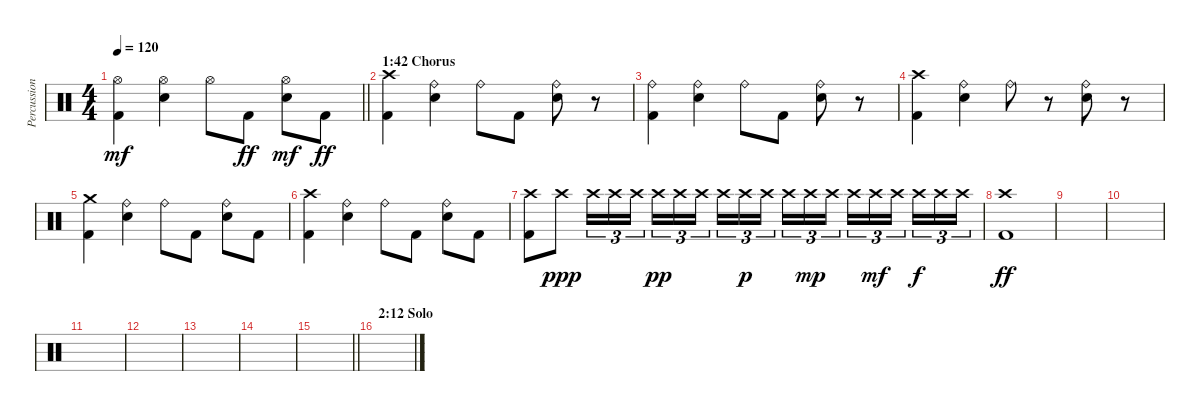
\track ("Percussion" "Percussion") {instrument percussion}
\staff {score}
\articulation defaults
\ts (4 4)
\tempo 120
\clef neutral
\barLineRight lightlight
\ks c
("Kick (hit) 2" "Hi-Hat (open)").4{dy mf} ("Electric Snare (hit)" "Hi-Hat (open)").4 "Hi-Hat (open)".8 "Kick (hit) 2".8{dy ff} ("Electric Snare (hit)" "Hi-Hat (open)").8{dy mf} "Kick (hit) 2".8{dy ff} |
\section ("" "1:42 Chorus")
("Kick (hit) 2" "Crash high (hit)").4 ("Electric Snare (hit)" "Ride (bell)").4 "Ride (bell)".8 "Kick (hit) 2".8 ("Electric Snare (hit)" "Ride (bell)").8 r.8 |
("Kick (hit) 2" "Ride (bell)").4 ("Electric Snare (hit)" "Ride (bell)").4 "Ride (bell)".8 "Kick (hit) 2".8 ("Electric Snare (hit)" "Ride (bell)").8 r.8 |
("Kick (hit) 2" "Crash high (hit)").4 ("Electric Snare (hit)" "Ride (bell)").4 "Ride (bell)".8 r.8 ("Electric Snare (hit)" "Ride (bell)").8 r.8 |
("Kick (hit) 2" "Crash medium (hit)").4 ("Electric Snare (hit)" "Ride (bell)").4 "Ride (bell)".8 "Kick (hit) 2".8 ("Electric Snare (hit)" "Ride (bell)").8 "Kick (hit) 2".8 |
("Kick (hit) 2" "Crash high (hit)").4 ("Electric Snare (hit)" "Ride (bell)").4 "Ride (bell)".8 "Kick (hit) 2".8 ("Electric Snare (hit)" "Ride (bell)").8 "Kick (hit) 2".8 |
("Kick (hit) 2" "Crash high (hit)").8 "Crash high (hit)".8{dy ppp} "Crash high (hit)".16{tu (3 2)} "Crash high (hit)".16{tu (3 2)} "Crash high (hit)".16{tu (3 2) beam splitsecondary} "Crash high (hit)".16{tu (3 2) dy pp} "Crash high (hit)".16{tu (3 2)} "Crash high (hit)".16{tu (3 2)} "Crash high (hit)".16{tu (3 2)} "Crash high (hit)".16{tu (3 2) dy p} "Crash high (hit)".16{tu (3 2) beam splitsecondary} "Crash high (hit)".16{tu (3 2)} "Crash high (hit)".16{tu (3 2) dy mp} "Crash high (hit)".16{tu (3 2)} "Crash high (hit)".16{tu (3 2)} "Crash high (hit)".16{tu (3 2) dy mf} "Crash high (hit)".16{tu (3 2) beam splitsecondary} "Crash high (hit)".16{tu (3 2) dy f} "Crash high (hit)".16{tu (3 2)} "Crash high (hit)".16{tu (3 2)} |
("Kick (hit) 2" "Crash high (hit)").1{dy ff} |
|
|
|
|
|
|
\barLineRight lightlight
|
\section ("" "2:12 Solo")
